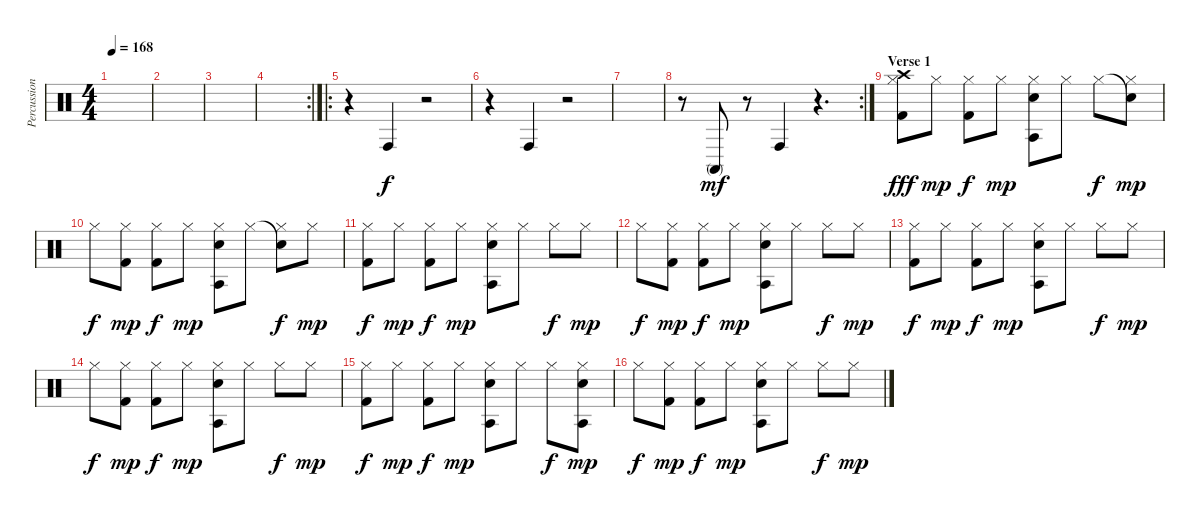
\track ("Percussion" "Percussion") {instrument percussion}
\staff {score}
\articulation defaults
\ts (4 4)
\tempo 168
\clef neutral
\ks c
|
|
|
\rc 2
|
\ro
r.4 "Conga high (hit)".4 r.2 |
r.4 "Conga high (hit)".4 r.2 |
|
\rc 2
r.8 "Conga high (mute)".8{dy mf} r.8 "Conga high (hit)".4 r.4{d} |
\section ("" "Verse 1")
("Crash high (hit)" "Hi-Hat (closed)" "Kick (hit) 2").8{dy fff} "Hi-Hat (closed)".8{dy mp} ("Hi-Hat (closed)" "Kick (hit) 2").8{dy f} "Hi-Hat (closed)".8{dy mp} ("Hi-Hat (closed)" "Agogo tow (hit)" "Electric Snare (hit)").8 "Hi-Hat (closed)".8 "Hi-Hat (closed)".8{dy f} ("Snare (hit)"{t} "Hi-Hat (closed)").8{dy mp} |
"Hi-Hat (closed)".8{dy f} ("Hi-Hat (closed)" "Kick (hit) 2").8{dy mp} ("Hi-Hat (closed)" "Kick (hit) 2").8{dy f} "Hi-Hat (closed)".8{dy mp} ("Hi-Hat (closed)" "Agogo tow (hit)" "Electric Snare (hit)").8 "Hi-Hat (closed)".8 ("Snare (hit)"{t} "Hi-Hat (closed)").8{dy f} "Hi-Hat (closed)".8{dy mp} |
("Hi-Hat (closed)" "Kick (hit) 2").8{dy f} "Hi-Hat (closed)".8{dy mp} ("Hi-Hat (closed)" "Kick (hit) 2").8{dy f} "Hi-Hat (closed)".8{dy mp} ("Hi-Hat (closed)" "Agogo tow (hit)" "Electric Snare (hit)").8 "Hi-Hat (closed)".8 "Hi-Hat (closed)".8{dy f} "Hi-Hat (closed)".8{dy mp} |
"Hi-Hat (closed)".8{dy f} ("Hi-Hat (closed)" "Kick (hit) 2").8{dy mp} ("Hi-Hat (closed)" "Kick (hit) 2").8{dy f} "Hi-Hat (closed)".8{dy mp} ("Hi-Hat (closed)" "Agogo tow (hit)" "Electric Snare (hit)").8 "Hi-Hat (closed)".8 "Hi-Hat (closed)".8{dy f} "Hi-Hat (closed)".8{dy mp} |
("Hi-Hat (closed)" "Kick (hit) 2").8{dy f} "Hi-Hat (closed)".8{dy mp} ("Hi-Hat (closed)" "Kick (hit) 2").8{dy f} "Hi-Hat (closed)".8{dy mp} ("Hi-Hat (closed)" "Agogo tow (hit)" "Electric Snare (hit)").8 "Hi-Hat (closed)".8 "Hi-Hat (closed)".8{dy f} "Hi-Hat (closed)".8{dy mp} |
"Hi-Hat (closed)".8{dy f} ("Hi-Hat (closed)" "Kick (hit) 2").8{dy mp} ("Hi-Hat (closed)" "Kick (hit) 2").8{dy f} "Hi-Hat (closed)".8{dy mp} ("Hi-Hat (closed)" "Agogo tow (hit)" "Electric Snare (hit)").8 "Hi-Hat (closed)".8 "Hi-Hat (closed)".8{dy f} "Hi-Hat (closed)".8{dy mp} |
("Hi-Hat (closed)" "Kick (hit) 2").8{dy f} "Hi-Hat (closed)".8{dy mp} ("Hi-Hat (closed)" "Kick (hit) 2").8{dy f} "Hi-Hat (closed)".8{dy mp} ("Hi-Hat (closed)" "Agogo tow (hit)" "Electric Snare (hit)").8 "Hi-Hat (closed)".8 "Hi-Hat (closed)".8{dy f} ("Hi-Hat (closed)" "Agogo tow (hit)" "Electric Snare (hit)").8{dy mp} |
"Hi-Hat (closed)".8{dy f} ("Hi-Hat (closed)" "Kick (hit) 2").8{dy mp} ("Hi-Hat (closed)" "Kick (hit) 2").8{dy f} "Hi-Hat (closed)".8{dy mp} ("Hi-Hat (closed)" "Agogo tow (hit)" "Electric Snare (hit)").8 "Hi-Hat (closed)".8 "Hi-Hat (closed)".8{dy f} "Hi-Hat (closed)".8{dy mp}
